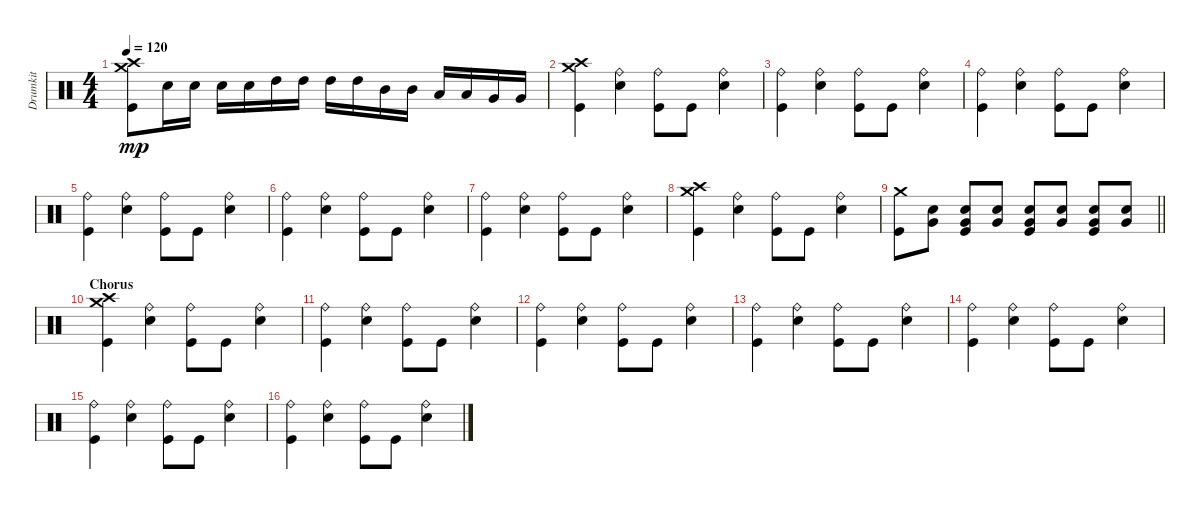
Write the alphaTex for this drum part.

\track ("Drumkit" "Drumkit") {instrument percussion}
\staff {score}
\articulation defaults
\ts (4 4)
\tempo 120
\clef neutral
\ks c
("Kick (hit)" "Crash medium (hit)" "Crash high (hit)").8{dy mp} "Snare (hit) 2".16 "Snare (hit) 2".16 "Snare (hit) 2".16 "Snare (hit) 2".16 "High Tom (hit)".16 "High Tom (hit)".16 "High Tom (hit)".16 "High Tom (hit)".16 "Mid Tom (hit)".16 "Mid Tom (hit)".16 "Low Tom (hit)".16 "Low Tom (hit)".16 "Very Low Tom (hit)".16 "Very Low Tom (hit)".16 |
("Kick (hit)" "Crash high (hit)" "Crash medium (hit)").4 ("Snare (hit) 2" "Ride (bell)").4 ("Kick (hit)" "Ride (bell)").8 "Kick (hit)".8 ("Snare (hit) 2" "Ride (bell)").4 |
("Kick (hit)" "Ride (bell)").4 ("Snare (hit) 2" "Ride (bell)").4 ("Kick (hit)" "Ride (bell)").8 "Kick (hit)".8 ("Snare (hit) 2" "Ride (bell)").4 |
("Kick (hit)" "Ride (bell)").4 ("Snare (hit) 2" "Ride (bell)").4 ("Kick (hit)" "Ride (bell)").8 "Kick (hit)".8 ("Snare (hit) 2" "Ride (bell)").4 |
("Kick (hit)" "Ride (bell)").4 ("Snare (hit) 2" "Ride (bell)").4 ("Kick (hit)" "Ride (bell)").8 "Kick (hit)".8 ("Snare (hit) 2" "Ride (bell)").4 |
("Kick (hit)" "Ride (bell)").4 ("Snare (hit) 2" "Ride (bell)").4 ("Kick (hit)" "Ride (bell)").8 "Kick (hit)".8 ("Snare (hit) 2" "Ride (bell)").4 |
("Kick (hit)" "Ride (bell)").4 ("Snare (hit) 2" "Ride (bell)").4 ("Kick (hit)" "Ride (bell)").8 "Kick (hit)".8 ("Snare (hit) 2" "Ride (bell)").4 |
("Kick (hit)" "Crash high (hit)" "Crash medium (hit)").4 ("Snare (hit) 2" "Ride (bell)").4 ("Kick (hit)" "Ride (bell)").8 "Kick (hit)".8 ("Snare (hit) 2" "Ride (bell)").4 |
\barLineRight lightlight
("Kick (hit)" "Crash medium (hit)").8 ("Snare (hit) 2" "Very Low Tom (hit)").8 ("Snare (hit) 2" "Very Low Tom (hit)" "Kick (hit)").8 ("Snare (hit) 2" "Very Low Tom (hit)").8 ("Snare (hit) 2" "Very Low Tom (hit)" "Kick (hit)").8 ("Snare (hit) 2" "Very Low Tom (hit)").8 ("Snare (hit) 2" "Very Low Tom (hit)" "Kick (hit)").8 ("Snare (hit) 2" "Very Low Tom (hit)").8 |
\section ("" "Chorus")
("Kick (hit)" "Crash high (hit)" "Crash medium (hit)").4 ("Snare (hit) 2" "Ride (bell)").4 ("Kick (hit)" "Ride (bell)").8 "Kick (hit)".8 ("Snare (hit) 2" "Ride (bell)").4 |
("Kick (hit)" "Ride (bell)").4 ("Snare (hit) 2" "Ride (bell)").4 ("Kick (hit)" "Ride (bell)").8 "Kick (hit)".8 ("Snare (hit) 2" "Ride (bell)").4 |
("Kick (hit)" "Ride (bell)").4 ("Snare (hit) 2" "Ride (bell)").4 ("Kick (hit)" "Ride (bell)").8 "Kick (hit)".8 ("Snare (hit) 2" "Ride (bell)").4 |
("Kick (hit)" "Ride (bell)").4 ("Snare (hit) 2" "Ride (bell)").4 ("Kick (hit)" "Ride (bell)").8 "Kick (hit)".8 ("Snare (hit) 2" "Ride (bell)").4 |
("Kick (hit)" "Ride (bell)").4 ("Snare (hit) 2" "Ride (bell)").4 ("Kick (hit)" "Ride (bell)").8 "Kick (hit)".8 ("Snare (hit) 2" "Ride (bell)").4 |
("Kick (hit)" "Ride (bell)").4 ("Snare (hit) 2" "Ride (bell)").4 ("Kick (hit)" "Ride (bell)").8 "Kick (hit)".8 ("Snare (hit) 2" "Ride (bell)").4 |
("Kick (hit)" "Ride (bell)").4 ("Snare (hit) 2" "Ride (bell)").4 ("Kick (hit)" "Ride (bell)").8 "Kick (hit)".8 ("Snare (hit) 2" "Ride (bell)").4
